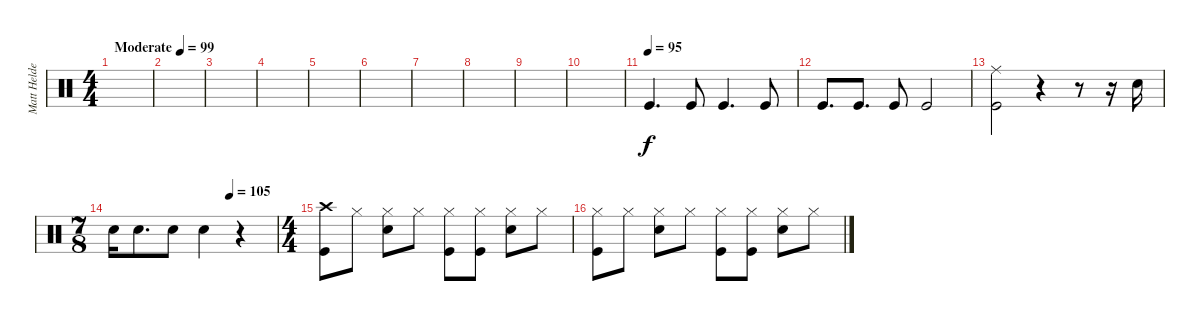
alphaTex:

\track ("Matt Helders" "Matt Helde") {instrument percussion}
\staff {score}
\articulation defaults
\ts (4 4)
\tempo (99 "Moderate")
\clef neutral
\ks c
|
|
|
|
|
|
|
|
|
|
\tempo (95)
"Kick (hit)".4{d} "Kick (hit)".8 "Kick (hit)".4{d} "Kick (hit)".8 |
"Kick (hit)".8{d} "Kick (hit)".8{d} "Kick (hit)".8 "Kick (hit)".2 |
("Ride (middle)" "Kick (hit)").2 r.4 r.8 r.16 "Snare (hit) 2".16 |
\ts (7 8)
\tempo (105 0.7142857142857143)
"Snare (hit) 2".16 "Snare (hit) 2".8{d} "Snare (hit) 2".8 "Snare (hit) 2".4 r.4 |
\ts (4 4)
("Crash high (hit)" "Kick (hit)").8 "Hi-Hat (closed)".8 ("Hi-Hat (closed)" "Snare (hit) 2").8 "Hi-Hat (closed)".8 ("Hi-Hat (closed)" "Kick (hit)").8 ("Hi-Hat (closed)" "Kick (hit)").8 ("Hi-Hat (closed)" "Snare (hit) 2").8 "Hi-Hat (closed)".8 |
("Hi-Hat (closed)" "Kick (hit)").8 "Hi-Hat (closed)".8 ("Hi-Hat (closed)" "Snare (hit) 2").8 "Hi-Hat (closed)".8 ("Hi-Hat (closed)" "Kick (hit)").8 ("Hi-Hat (closed)" "Kick (hit)").8 ("Hi-Hat (closed)" "Snare (hit) 2").8 "Hi-Hat (closed)".8
